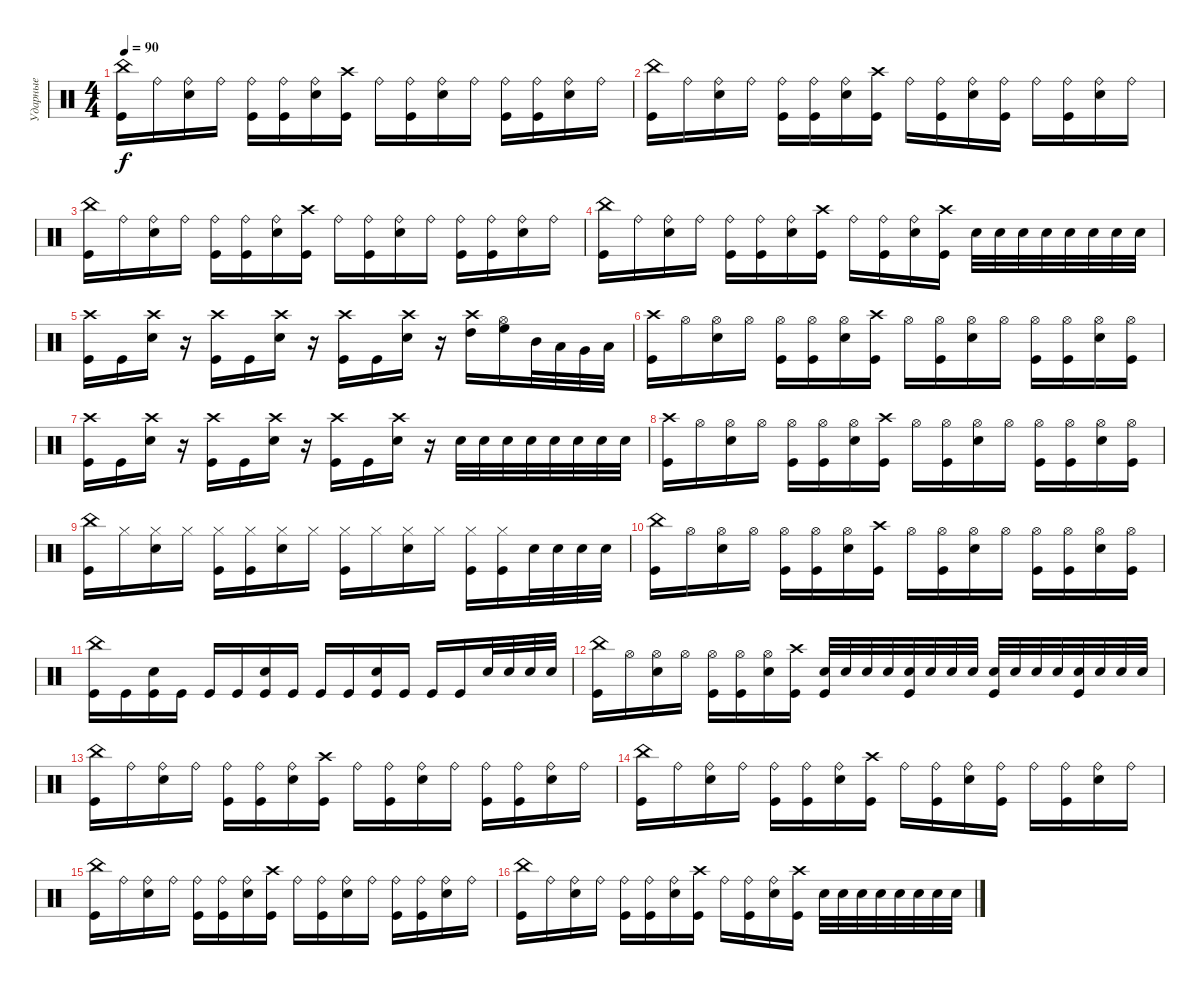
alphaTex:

\track ("Ударные" "Ударные") {instrument percussion}
\staff {score}
\articulation defaults
\ts (4 4)
\tempo 90
\clef neutral
\ks c
("China (hit)" "Kick (hit)").16{dy f} "Ride (bell)".16 ("Ride (bell)" "Electric Snare (hit)").16 "Ride (bell)".16 ("Ride (bell)" "Kick (hit)").16 ("Ride (bell)" "Kick (hit)").16 ("Ride (bell)" "Electric Snare (hit)").16 ("Crash high (hit)" "Kick (hit)").16 "Ride (bell)".16 ("Ride (bell)" "Kick (hit)").16 ("Ride (bell)" "Electric Snare (hit)").16 "Ride (bell)".16 ("Ride (bell)" "Kick (hit)").16 ("Ride (bell)" "Kick (hit)").16 ("Ride (bell)" "Electric Snare (hit)").16 "Ride (bell)".16 |
("China (hit)" "Kick (hit)").16 "Ride (bell)".16 ("Ride (bell)" "Electric Snare (hit)").16 "Ride (bell)".16 ("Ride (bell)" "Kick (hit)").16 ("Ride (bell)" "Kick (hit)").16 ("Ride (bell)" "Electric Snare (hit)").16 ("Crash high (hit)" "Kick (hit)").16 "Ride (bell)".16 ("Ride (bell)" "Kick (hit)").16 ("Ride (bell)" "Electric Snare (hit)").16 ("Ride (bell)" "Kick (hit)").16 "Ride (bell)".16 ("Ride (bell)" "Kick (hit)").16 ("Ride (bell)" "Electric Snare (hit)").16 "Ride (bell)".16 |
("China (hit)" "Kick (hit)").16 "Ride (bell)".16 ("Ride (bell)" "Electric Snare (hit)").16 "Ride (bell)".16 ("Ride (bell)" "Kick (hit)").16 ("Ride (bell)" "Kick (hit)").16 ("Ride (bell)" "Electric Snare (hit)").16 ("Crash high (hit)" "Kick (hit)").16 "Ride (bell)".16 ("Ride (bell)" "Kick (hit)").16 ("Ride (bell)" "Electric Snare (hit)").16 "Ride (bell)".16 ("Ride (bell)" "Kick (hit)").16 ("Ride (bell)" "Kick (hit)").16 ("Ride (bell)" "Electric Snare (hit)").16 "Ride (bell)".16 |
("China (hit)" "Kick (hit)").16 "Ride (bell)".16 ("Ride (bell)" "Electric Snare (hit)").16 "Ride (bell)".16 ("Ride (bell)" "Kick (hit)").16 ("Ride (bell)" "Kick (hit)").16 ("Ride (bell)" "Electric Snare (hit)").16 ("Crash high (hit)" "Kick (hit)").16 "Ride (bell)".16 ("Ride (bell)" "Kick (hit)").16 ("Ride (bell)" "Electric Snare (hit)").16 ("Crash high (hit)" "Kick (hit)").16 "Electric Snare (hit)".32 "Electric Snare (hit)".32 "Electric Snare (hit)".32 "Electric Snare (hit)".32 "Electric Snare (hit)".32 "Electric Snare (hit)".32 "Electric Snare (hit)".32 "Electric Snare (hit)".32 |
("Crash high (hit)" "Kick (hit)").16 "Kick (hit)".16 ("Crash high (hit)" "Electric Snare (hit)").16 r.16 ("Crash high (hit)" "Kick (hit)").16 "Kick (hit)".16 ("Crash high (hit)" "Electric Snare (hit)").16 r.16 ("Crash high (hit)" "Kick (hit)").16 "Kick (hit)".16 ("Crash high (hit)" "Electric Snare (hit)").16 r.16 ("Crash high (hit)" "High Tom (hit)").16 ("Hi-Hat (open)" "High Floor Tom (hit)").16 "Mid Tom (hit)".32 "Low Tom (hit)".32 "Very Low Tom (hit)".32 "Low Floor Tom (hit)".32 |
("Crash high (hit)" "Kick (hit)").16 "Hi-Hat (open)".16 ("Hi-Hat (open)" "Electric Snare (hit)").16 "Hi-Hat (open)".16 ("Hi-Hat (open)" "Kick (hit)").16 ("Hi-Hat (open)" "Kick (hit)").16 ("Hi-Hat (open)" "Electric Snare (hit)").16 ("Crash high (hit)" "Kick (hit)").16 "Hi-Hat (open)".16 ("Hi-Hat (open)" "Kick (hit)").16 ("Hi-Hat (open)" "Electric Snare (hit)").16 "Hi-Hat (open)".16 ("Hi-Hat (open)" "Kick (hit)").16 ("Hi-Hat (open)" "Kick (hit)").16 ("Hi-Hat (open)" "Electric Snare (hit)").16 ("Hi-Hat (open)" "Kick (hit)").16 |
("Crash high (hit)" "Kick (hit)").16 "Kick (hit)".16 ("Crash high (hit)" "Electric Snare (hit)").16 r.16 ("Crash high (hit)" "Kick (hit)").16 "Kick (hit)".16 ("Crash high (hit)" "Electric Snare (hit)").16 r.16 ("Crash high (hit)" "Kick (hit)").16 "Kick (hit)".16 ("Crash high (hit)" "Electric Snare (hit)").16 r.16 "Electric Snare (hit)".32 "Electric Snare (hit)".32 "Electric Snare (hit)".32 "Electric Snare (hit)".32 "Electric Snare (hit)".32 "Electric Snare (hit)".32 "Electric Snare (hit)".32 "Electric Snare (hit)".32 |
("Crash high (hit)" "Kick (hit)").16 "Hi-Hat (open)".16 ("Hi-Hat (open)" "Electric Snare (hit)").16 "Hi-Hat (open)".16 ("Hi-Hat (open)" "Kick (hit)").16 ("Hi-Hat (open)" "Kick (hit)").16 ("Hi-Hat (open)" "Electric Snare (hit)").16 ("Crash high (hit)" "Kick (hit)").16 "Hi-Hat (open)".16 ("Hi-Hat (open)" "Kick (hit)").16 ("Hi-Hat (open)" "Electric Snare (hit)").16 "Hi-Hat (open)".16 ("Hi-Hat (open)" "Kick (hit)").16 ("Hi-Hat (open)" "Kick (hit)").16 ("Hi-Hat (open)" "Electric Snare (hit)").16 ("Hi-Hat (open)" "Kick (hit)").16 |
("China (hit)" "Kick (hit)").16 "Hi-Hat (closed)".16 ("Hi-Hat (closed)" "Electric Snare (hit)").16 "Hi-Hat (closed)".16 ("Hi-Hat (closed)" "Kick (hit)").16 ("Hi-Hat (closed)" "Kick (hit)").16 ("Hi-Hat (closed)" "Electric Snare (hit)").16 "Hi-Hat (closed)".16 ("Hi-Hat (closed)" "Kick (hit)").16 "Hi-Hat (closed)".16 ("Hi-Hat (closed)" "Electric Snare (hit)").16 "Hi-Hat (closed)".16 ("Hi-Hat (closed)" "Kick (hit)").16 ("Hi-Hat (closed)" "Kick (hit)").16 "Electric Snare (hit)".32 "Electric Snare (hit)".32 "Electric Snare (hit)".32 "Electric Snare (hit)".32 |
("China (hit)" "Kick (hit)").16 "Hi-Hat (open)".16 ("Hi-Hat (open)" "Electric Snare (hit)").16 "Hi-Hat (open)".16 ("Hi-Hat (open)" "Kick (hit)").16 ("Hi-Hat (open)" "Kick (hit)").16 ("Hi-Hat (open)" "Electric Snare (hit)").16 ("Crash high (hit)" "Kick (hit)").16 "Hi-Hat (open)".16 ("Hi-Hat (open)" "Kick (hit)").16 ("Hi-Hat (open)" "Electric Snare (hit)").16 "Hi-Hat (open)".16 ("Hi-Hat (open)" "Kick (hit)").16 ("Hi-Hat (open)" "Kick (hit)").16 ("Hi-Hat (open)" "Electric Snare (hit)").16 ("Hi-Hat (open)" "Kick (hit)").16 |
("China (hit)" "Kick (hit)").16 "Kick (hit)".16 ("Kick (hit)" "Electric Snare (hit)").16 "Kick (hit)".16 "Kick (hit)".16 "Kick (hit)".16 ("Kick (hit)" "Electric Snare (hit)").16 "Kick (hit)".16 "Kick (hit)".16 "Kick (hit)".16 ("Kick (hit)" "Electric Snare (hit)").16 "Kick (hit)".16 "Kick (hit)".16 "Kick (hit)".16 "Electric Snare (hit)".32 "Electric Snare (hit)".32 "Electric Snare (hit)".32 "Electric Snare (hit)".32 |
("China (hit)" "Kick (hit)").16 "Hi-Hat (open)".16 ("Hi-Hat (open)" "Electric Snare (hit)").16 "Hi-Hat (open)".16 ("Hi-Hat (open)" "Kick (hit)").16 ("Hi-Hat (open)" "Kick (hit)").16 ("Hi-Hat (open)" "Electric Snare (hit)").16 ("Crash high (hit)" "Kick (hit)").16 ("Electric Snare (hit)" "Kick (hit)").32 "Electric Snare (hit)".32 "Electric Snare (hit)".32 "Electric Snare (hit)".32 ("Electric Snare (hit)" "Kick (hit)").32 "Electric Snare (hit)".32 "Electric Snare (hit)".32 "Electric Snare (hit)".32 ("Electric Snare (hit)" "Kick (hit)").32 "Electric Snare (hit)".32 "Electric Snare (hit)".32 "Electric Snare (hit)".32 ("Electric Snare (hit)" "Kick (hit)").32 "Electric Snare (hit)".32 "Electric Snare (hit)".32 "Electric Snare (hit)".32 |
("China (hit)" "Kick (hit)").16 "Ride (bell)".16 ("Ride (bell)" "Electric Snare (hit)").16 "Ride (bell)".16 ("Ride (bell)" "Kick (hit)").16 ("Ride (bell)" "Kick (hit)").16 ("Ride (bell)" "Electric Snare (hit)").16 ("Crash high (hit)" "Kick (hit)").16 "Ride (bell)".16 ("Ride (bell)" "Kick (hit)").16 ("Ride (bell)" "Electric Snare (hit)").16 "Ride (bell)".16 ("Ride (bell)" "Kick (hit)").16 ("Ride (bell)" "Kick (hit)").16 ("Ride (bell)" "Electric Snare (hit)").16 "Ride (bell)".16 |
("China (hit)" "Kick (hit)").16 "Ride (bell)".16 ("Ride (bell)" "Electric Snare (hit)").16 "Ride (bell)".16 ("Ride (bell)" "Kick (hit)").16 ("Ride (bell)" "Kick (hit)").16 ("Ride (bell)" "Electric Snare (hit)").16 ("Crash high (hit)" "Kick (hit)").16 "Ride (bell)".16 ("Ride (bell)" "Kick (hit)").16 ("Ride (bell)" "Electric Snare (hit)").16 ("Ride (bell)" "Kick (hit)").16 "Ride (bell)".16 ("Ride (bell)" "Kick (hit)").16 ("Ride (bell)" "Electric Snare (hit)").16 "Ride (bell)".16 |
("China (hit)" "Kick (hit)").16 "Ride (bell)".16 ("Ride (bell)" "Electric Snare (hit)").16 "Ride (bell)".16 ("Ride (bell)" "Kick (hit)").16 ("Ride (bell)" "Kick (hit)").16 ("Ride (bell)" "Electric Snare (hit)").16 ("Crash high (hit)" "Kick (hit)").16 "Ride (bell)".16 ("Ride (bell)" "Kick (hit)").16 ("Ride (bell)" "Electric Snare (hit)").16 "Ride (bell)".16 ("Ride (bell)" "Kick (hit)").16 ("Ride (bell)" "Kick (hit)").16 ("Ride (bell)" "Electric Snare (hit)").16 "Ride (bell)".16 |
("China (hit)" "Kick (hit)").16 "Ride (bell)".16 ("Ride (bell)" "Electric Snare (hit)").16 "Ride (bell)".16 ("Ride (bell)" "Kick (hit)").16 ("Ride (bell)" "Kick (hit)").16 ("Ride (bell)" "Electric Snare (hit)").16 ("Crash high (hit)" "Kick (hit)").16 "Ride (bell)".16 ("Ride (bell)" "Kick (hit)").16 ("Ride (bell)" "Electric Snare (hit)").16 ("Crash high (hit)" "Kick (hit)").16 "Electric Snare (hit)".32 "Electric Snare (hit)".32 "Electric Snare (hit)".32 "Electric Snare (hit)".32 "Electric Snare (hit)".32 "Electric Snare (hit)".32 "Electric Snare (hit)".32 "Electric Snare (hit)".32
